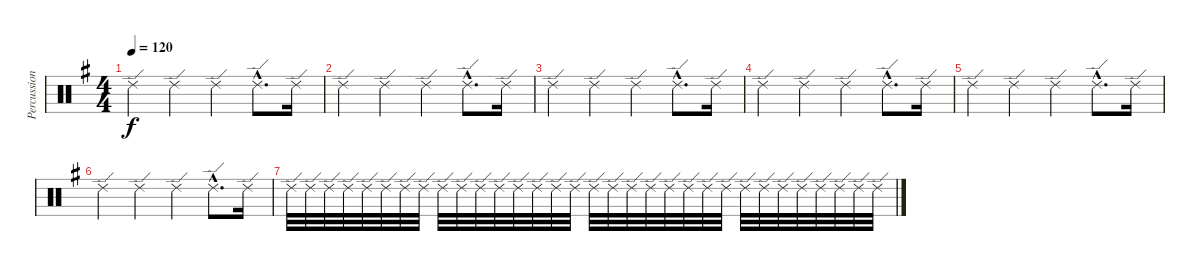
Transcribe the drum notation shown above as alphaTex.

\track ("Percussioni" "Percussion") {instrument percussion}
\staff {score}
\articulation defaults
\ts (4 4)
\tempo 120
\clef neutral
\ks eminor "Ride (edge) 2".4{dy f} "Ride (edge) 2".4 "Ride (edge) 2".4 "Ride (edge) 2"{hac}.8{d} "Ride (edge) 2".16
|
"Ride (edge) 2".4 "Ride (edge) 2".4 "Ride (edge) 2".4 "Ride (edge) 2"{hac}.8{d} "Ride (edge) 2".16 |
"Ride (edge) 2".4 "Ride (edge) 2".4 "Ride (edge) 2".4 "Ride (edge) 2"{hac}.8{d} "Ride (edge) 2".16 |
"Ride (edge) 2".4 "Ride (edge) 2".4 "Ride (edge) 2".4 "Ride (edge) 2"{hac}.8{d} "Ride (edge) 2".16 |
"Ride (edge) 2".4 "Ride (edge) 2".4 "Ride (edge) 2".4 "Ride (edge) 2"{hac}.8{d} "Ride (edge) 2".16 |
"Ride (edge) 2".4 "Ride (edge) 2".4 "Ride (edge) 2".4 "Ride (edge) 2"{hac}.8{d} "Ride (edge) 2".16 |
"Ride (edge) 2".32 "Ride (edge) 2".32 "Ride (edge) 2".32 "Ride (edge) 2".32 "Ride (edge) 2".32 "Ride (edge) 2".32 "Ride (edge) 2".32 "Ride (edge) 2".32 "Ride (edge) 2".32 "Ride (edge) 2".32 "Ride (edge) 2".32 "Ride (edge) 2".32 "Ride (edge) 2".32 "Ride (edge) 2".32 "Ride (edge) 2".32 "Ride (edge) 2".32 "Ride (edge) 2".32 "Ride (edge) 2".32 "Ride (edge) 2".32 "Ride (edge) 2".32 "Ride (edge) 2".32 "Ride (edge) 2".32 "Ride (edge) 2".32 "Ride (edge) 2".32 "Ride (edge) 2".32 "Ride (edge) 2".32 "Ride (edge) 2".32 "Ride (edge) 2".32 "Ride (edge) 2".32 "Ride (edge) 2".32 "Ride (edge) 2".32 "Ride (edge) 2".32
